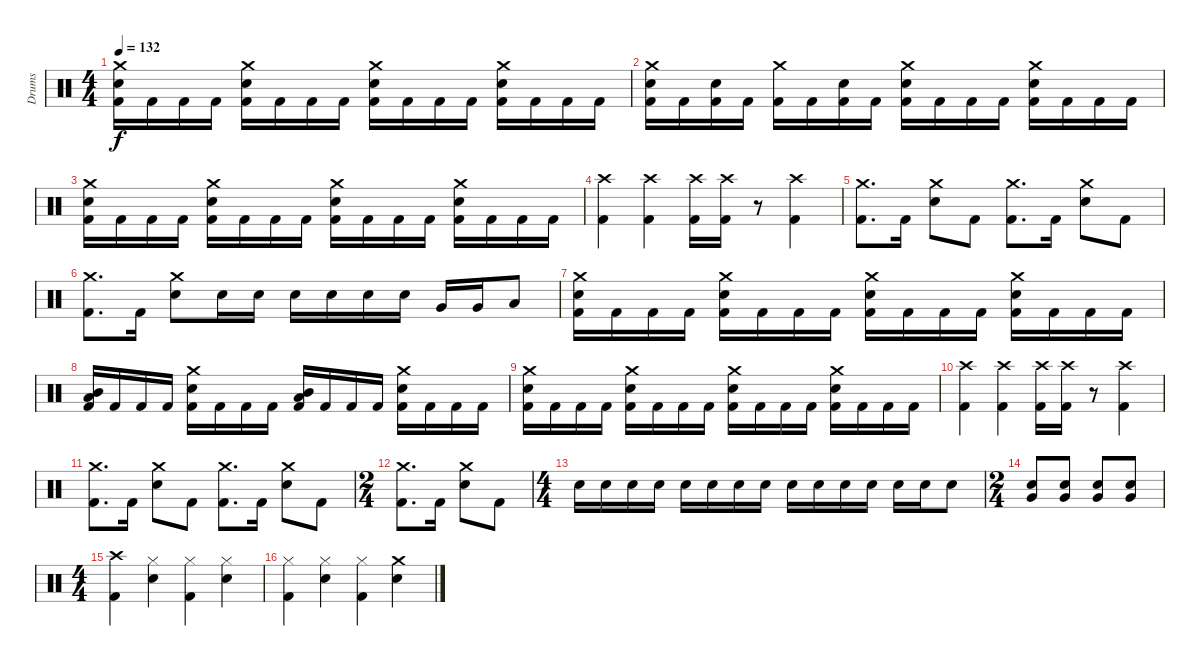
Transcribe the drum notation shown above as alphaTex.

\track ("Drums" "Drums") {instrument percussion}
\staff {score}
\articulation defaults
\ts (4 4)
\tempo 132
\clef neutral
\ks c
("Crash medium (hit)" "Snare (hit) 2" "Kick (hit) 2").16{dy f} "Kick (hit) 2".16 "Kick (hit) 2".16 "Kick (hit) 2".16 ("Crash medium (hit)" "Snare (hit) 2" "Kick (hit) 2").16 "Kick (hit) 2".16 "Kick (hit) 2".16 "Kick (hit) 2".16 ("Crash medium (hit)" "Snare (hit) 2" "Kick (hit) 2").16 "Kick (hit) 2".16 "Kick (hit) 2".16 "Kick (hit) 2".16 ("Crash medium (hit)" "Snare (hit) 2" "Kick (hit) 2").16 "Kick (hit) 2".16 "Kick (hit) 2".16 "Kick (hit) 2".16 |
("Crash medium (hit)" "Snare (hit) 2" "Kick (hit) 2").16 "Kick (hit) 2".16 ("Snare (hit) 2" "Kick (hit) 2").16 "Kick (hit) 2".16 ("Crash medium (hit)" "Kick (hit) 2").16 "Kick (hit) 2".16 ("Snare (hit) 2" "Kick (hit) 2").16 "Kick (hit) 2".16 ("Crash medium (hit)" "Snare (hit) 2" "Kick (hit) 2").16 "Kick (hit) 2".16 "Kick (hit) 2".16 "Kick (hit) 2".16 ("Crash medium (hit)" "Snare (hit) 2" "Kick (hit) 2").16 "Kick (hit) 2".16 "Kick (hit) 2".16 "Kick (hit) 2".16 |
("Crash medium (hit)" "Snare (hit) 2" "Kick (hit) 2").16 "Kick (hit) 2".16 "Kick (hit) 2".16 "Kick (hit) 2".16 ("Crash medium (hit)" "Snare (hit) 2" "Kick (hit) 2").16 "Kick (hit) 2".16 "Kick (hit) 2".16 "Kick (hit) 2".16 ("Crash medium (hit)" "Snare (hit) 2" "Kick (hit) 2").16 "Kick (hit) 2".16 "Kick (hit) 2".16 "Kick (hit) 2".16 ("Crash medium (hit)" "Snare (hit) 2" "Kick (hit) 2").16 "Kick (hit) 2".16 "Kick (hit) 2".16 "Kick (hit) 2".16 |
("Crash high (hit)" "Kick (hit) 2").4 ("Crash high (hit)" "Kick (hit) 2").4 ("Crash high (hit)" "Kick (hit) 2").16 ("Crash high (hit)" "Kick (hit) 2").16 r.8 ("Crash high (hit)" "Kick (hit) 2").4 |
("Crash medium (hit)" "Kick (hit) 2").8{d} "Kick (hit) 2".16 ("Crash medium (hit)" "Snare (hit) 2").8 "Kick (hit) 2".8 ("Crash medium (hit)" "Kick (hit) 2").8{d} "Kick (hit) 2".16 ("Crash medium (hit)" "Snare (hit) 2").8 "Kick (hit) 2".8 |
("Crash medium (hit)" "Kick (hit) 2").8{d} "Kick (hit) 2".16 ("Crash medium (hit)" "Snare (hit) 2").8 "Snare (hit) 2".16 "Snare (hit) 2".16 "Snare (hit) 2".16 "Snare (hit) 2".16 "Snare (hit) 2".16 "Snare (hit) 2".16 "Very Low Tom (hit)".16 "Very Low Tom (hit)".16 "Low Floor Tom (hit)".8 |
("Crash medium (hit)" "Snare (hit) 2" "Kick (hit) 2").16 "Kick (hit) 2".16 "Kick (hit) 2".16 "Kick (hit) 2".16 ("Crash medium (hit)" "Snare (hit) 2" "Kick (hit) 2").16 "Kick (hit) 2".16 "Kick (hit) 2".16 "Kick (hit) 2".16 ("Crash medium (hit)" "Snare (hit) 2" "Kick (hit) 2").16 "Kick (hit) 2".16 "Kick (hit) 2".16 "Kick (hit) 2".16 ("Crash medium (hit)" "Snare (hit) 2" "Kick (hit) 2").16 "Kick (hit) 2".16 "Kick (hit) 2".16 "Kick (hit) 2".16 |
("Low Tom (hit)" "Mid Tom (hit)" "Kick (hit) 2").16 "Kick (hit) 2".16 "Kick (hit) 2".16 "Kick (hit) 2".16 ("Crash medium (hit)" "Snare (hit) 2" "Kick (hit) 2").16 "Kick (hit) 2".16 "Kick (hit) 2".16 "Kick (hit) 2".16 ("Low Tom (hit)" "Mid Tom (hit)" "Kick (hit) 2").16 "Kick (hit) 2".16 "Kick (hit) 2".16 "Kick (hit) 2".16 ("Crash medium (hit)" "Snare (hit) 2" "Kick (hit) 2").16 "Kick (hit) 2".16 "Kick (hit) 2".16 "Kick (hit) 2".16 |
("Crash medium (hit)" "Snare (hit) 2" "Kick (hit) 2").16 "Kick (hit) 2".16 "Kick (hit) 2".16 "Kick (hit) 2".16 ("Crash medium (hit)" "Snare (hit) 2" "Kick (hit) 2").16 "Kick (hit) 2".16 "Kick (hit) 2".16 "Kick (hit) 2".16 ("Crash medium (hit)" "Snare (hit) 2" "Kick (hit) 2").16 "Kick (hit) 2".16 "Kick (hit) 2".16 "Kick (hit) 2".16 ("Crash medium (hit)" "Snare (hit) 2" "Kick (hit) 2").16 "Kick (hit) 2".16 "Kick (hit) 2".16 "Kick (hit) 2".16 |
("Crash high (hit)" "Kick (hit) 2").4 ("Crash high (hit)" "Kick (hit) 2").4 ("Crash high (hit)" "Kick (hit) 2").16 ("Crash high (hit)" "Kick (hit) 2").16 r.8 ("Crash high (hit)" "Kick (hit) 2").4 |
("Crash medium (hit)" "Kick (hit) 2").8{d} "Kick (hit) 2".16 ("Crash medium (hit)" "Snare (hit) 2").8 "Kick (hit) 2".8 ("Crash medium (hit)" "Kick (hit) 2").8{d} "Kick (hit) 2".16 ("Crash medium (hit)" "Snare (hit) 2").8 "Kick (hit) 2".8 |
\ts (2 4)
("Crash medium (hit)" "Kick (hit) 2").8{d} "Kick (hit) 2".16 ("Crash medium (hit)" "Snare (hit) 2").8 "Kick (hit) 2".8 |
\ts (4 4)
"Snare (hit) 2".16 "Snare (hit) 2".16 "Snare (hit) 2".16 "Snare (hit) 2".16 "Snare (hit) 2".16 "Snare (hit) 2".16 "Snare (hit) 2".16 "Snare (hit) 2".16 "Snare (hit) 2".16 "Snare (hit) 2".16 "Snare (hit) 2".16 "Snare (hit) 2".16 "Snare (hit) 2".16 "Snare (hit) 2".16 "Snare (hit) 2".8 |
\ts (2 4)
("Very Low Tom (hit)" "Snare (hit) 2").8 ("Very Low Tom (hit)" "Snare (hit) 2").8 ("Very Low Tom (hit)" "Snare (hit) 2").8 ("Very Low Tom (hit)" "Snare (hit) 2").8 |
\ts (4 4)
("Crash high (hit)" "Kick (hit) 2").4 ("Hi-Hat (closed)" "Snare (hit) 2").4 ("Hi-Hat (closed)" "Kick (hit) 2").4 ("Hi-Hat (closed)" "Snare (hit) 2").4 |
("Hi-Hat (closed)" "Kick (hit) 2").4 ("Hi-Hat (closed)" "Snare (hit) 2").4 ("Hi-Hat (closed)" "Kick (hit) 2").4 ("Crash medium (hit)" "Snare (hit) 2").4
